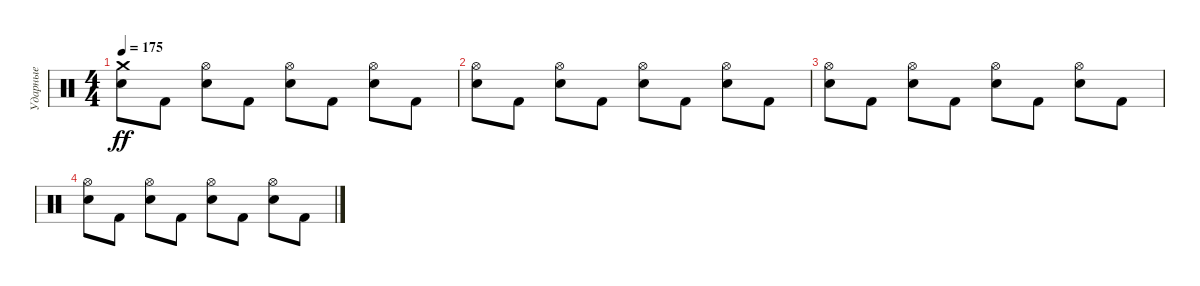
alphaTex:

\track ("Ударные" "Ударные") {instrument percussion}
\staff {score}
\articulation defaults
\ts (4 4)
\tempo 175
\clef neutral
\ks c
("Electric Snare (hit)" "Crash medium (hit)").8{dy ff} "Kick (hit) 2".8 ("Electric Snare (hit)" "Hi-Hat (open)").8 "Kick (hit) 2".8 ("Electric Snare (hit)" "Hi-Hat (open)").8 "Kick (hit) 2".8 ("Electric Snare (hit)" "Hi-Hat (open)").8 "Kick (hit) 2".8 |
("Electric Snare (hit)" "Hi-Hat (open)").8 "Kick (hit) 2".8 ("Electric Snare (hit)" "Hi-Hat (open)").8 "Kick (hit) 2".8 ("Electric Snare (hit)" "Hi-Hat (open)").8 "Kick (hit) 2".8 ("Electric Snare (hit)" "Hi-Hat (open)").8 "Kick (hit) 2".8 |
("Electric Snare (hit)" "Hi-Hat (open)").8 "Kick (hit) 2".8 ("Electric Snare (hit)" "Hi-Hat (open)").8 "Kick (hit) 2".8 ("Electric Snare (hit)" "Hi-Hat (open)").8 "Kick (hit) 2".8 ("Electric Snare (hit)" "Hi-Hat (open)").8 "Kick (hit) 2".8 |
("Electric Snare (hit)" "Hi-Hat (open)").8 "Kick (hit) 2".8 ("Electric Snare (hit)" "Hi-Hat (open)").8 "Kick (hit) 2".8 ("Electric Snare (hit)" "Hi-Hat (open)").8 "Kick (hit) 2".8 ("Electric Snare (hit)" "Hi-Hat (open)").8 "Kick (hit) 2".8
